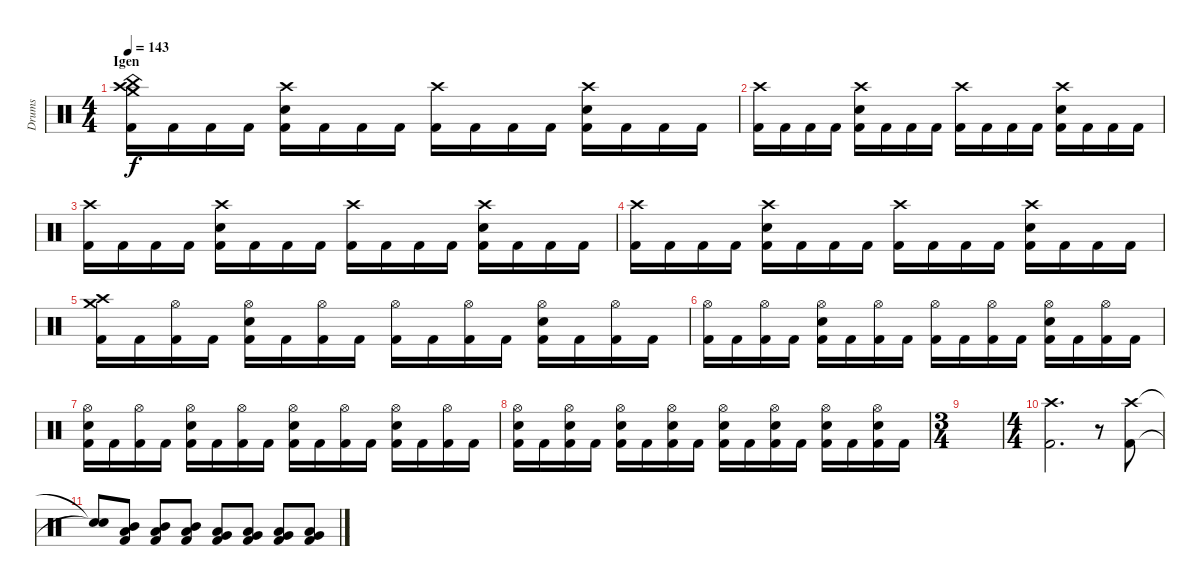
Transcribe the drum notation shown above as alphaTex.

\track ("Drums" "Drums") {instrument percussion}
\staff {score}
\articulation defaults
\ts (4 4)
\section ("" "Igen")
\tempo 143
\clef neutral
\ks c
("Crash medium (hit)" "Crash high (hit)" "China (hit)" "Kick (hit) 2").16{dy f} "Kick (hit) 2".16 "Kick (hit) 2".16 "Kick (hit) 2".16 ("Crash high (hit)" "Snare (hit) 2" "Kick (hit) 2").16 "Kick (hit) 2".16 "Kick (hit) 2".16 "Kick (hit) 2".16 ("Crash high (hit)" "Kick (hit) 2").16 "Kick (hit) 2".16 "Kick (hit) 2".16 "Kick (hit) 2".16 ("Crash high (hit)" "Snare (hit) 2" "Kick (hit) 2").16 "Kick (hit) 2".16 "Kick (hit) 2".16 "Kick (hit) 2".16 |
("Crash high (hit)" "Kick (hit) 2").16 "Kick (hit) 2".16 "Kick (hit) 2".16 "Kick (hit) 2".16 ("Crash high (hit)" "Snare (hit) 2" "Kick (hit) 2").16 "Kick (hit) 2".16 "Kick (hit) 2".16 "Kick (hit) 2".16 ("Crash high (hit)" "Kick (hit) 2").16 "Kick (hit) 2".16 "Kick (hit) 2".16 "Kick (hit) 2".16 ("Crash high (hit)" "Snare (hit) 2" "Kick (hit) 2").16 "Kick (hit) 2".16 "Kick (hit) 2".16 "Kick (hit) 2".16 |
("Crash high (hit)" "Kick (hit) 2").16 "Kick (hit) 2".16 "Kick (hit) 2".16 "Kick (hit) 2".16 ("Crash high (hit)" "Snare (hit) 2" "Kick (hit) 2").16 "Kick (hit) 2".16 "Kick (hit) 2".16 "Kick (hit) 2".16 ("Crash high (hit)" "Kick (hit) 2").16 "Kick (hit) 2".16 "Kick (hit) 2".16 "Kick (hit) 2".16 ("Crash high (hit)" "Snare (hit) 2" "Kick (hit) 2").16 "Kick (hit) 2".16 "Kick (hit) 2".16 "Kick (hit) 2".16 |
("Crash high (hit)" "Kick (hit) 2").16 "Kick (hit) 2".16 "Kick (hit) 2".16 "Kick (hit) 2".16 ("Crash high (hit)" "Snare (hit) 2" "Kick (hit) 2").16 "Kick (hit) 2".16 "Kick (hit) 2".16 "Kick (hit) 2".16 ("Crash high (hit)" "Kick (hit) 2").16 "Kick (hit) 2".16 "Kick (hit) 2".16 "Kick (hit) 2".16 ("Crash high (hit)" "Snare (hit) 2" "Kick (hit) 2").16 "Kick (hit) 2".16 "Kick (hit) 2".16 "Kick (hit) 2".16 |
("Crash medium (hit)" "Crash high (hit)" "Kick (hit) 2").16 "Kick (hit) 2".16 ("Hi-Hat (open)" "Kick (hit) 2").16 "Kick (hit) 2".16 ("Hi-Hat (open)" "Snare (hit) 2" "Kick (hit) 2").16 "Kick (hit) 2".16 ("Hi-Hat (open)" "Kick (hit) 2").16 "Kick (hit) 2".16 ("Hi-Hat (open)" "Kick (hit) 2").16 "Kick (hit) 2".16 ("Hi-Hat (open)" "Kick (hit) 2").16 "Kick (hit) 2".16 ("Hi-Hat (open)" "Snare (hit) 2" "Kick (hit) 2").16 "Kick (hit) 2".16 ("Hi-Hat (open)" "Kick (hit) 2").16 "Kick (hit) 2".16 |
("Hi-Hat (open)" "Kick (hit) 2").16 "Kick (hit) 2".16 ("Hi-Hat (open)" "Kick (hit) 2").16 "Kick (hit) 2".16 ("Hi-Hat (open)" "Snare (hit) 2" "Kick (hit) 2").16 "Kick (hit) 2".16 ("Hi-Hat (open)" "Kick (hit) 2").16 "Kick (hit) 2".16 ("Hi-Hat (open)" "Kick (hit) 2").16 "Kick (hit) 2".16 ("Hi-Hat (open)" "Kick (hit) 2").16 "Kick (hit) 2".16 ("Hi-Hat (open)" "Snare (hit) 2" "Kick (hit) 2").16 "Kick (hit) 2".16 ("Hi-Hat (open)" "Kick (hit) 2").16 "Kick (hit) 2".16 |
("Hi-Hat (open)" "Snare (hit) 2" "Kick (hit) 2").16 "Kick (hit) 2".16 ("Hi-Hat (open)" "Kick (hit) 2").16 "Kick (hit) 2".16 ("Hi-Hat (open)" "Snare (hit) 2" "Kick (hit) 2").16 "Kick (hit) 2".16 ("Hi-Hat (open)" "Kick (hit) 2").16 "Kick (hit) 2".16 ("Hi-Hat (open)" "Snare (hit) 2" "Kick (hit) 2").16 "Kick (hit) 2".16 ("Hi-Hat (open)" "Kick (hit) 2").16 "Kick (hit) 2".16 ("Hi-Hat (open)" "Snare (hit) 2" "Kick (hit) 2").16 "Kick (hit) 2".16 ("Hi-Hat (open)" "Kick (hit) 2").16 "Kick (hit) 2".16 |
("Hi-Hat (open)" "Snare (hit) 2" "Kick (hit) 2").16 "Kick (hit) 2".16 ("Hi-Hat (open)" "Snare (hit) 2" "Kick (hit) 2").16 "Kick (hit) 2".16 ("Hi-Hat (open)" "Snare (hit) 2" "Kick (hit) 2").16 "Kick (hit) 2".16 ("Hi-Hat (open)" "Snare (hit) 2" "Kick (hit) 2").16 "Kick (hit) 2".16 ("Hi-Hat (open)" "Snare (hit) 2" "Kick (hit) 2").16 "Kick (hit) 2".16 ("Hi-Hat (open)" "Snare (hit) 2" "Kick (hit) 2").16 "Kick (hit) 2".16 ("Hi-Hat (open)" "Snare (hit) 2" "Kick (hit) 2").16 "Kick (hit) 2".16 ("Hi-Hat (open)" "Snare (hit) 2" "Kick (hit) 2").16 "Kick (hit) 2".16 |
\ts (3 4)
|
\ts (4 4)
("Crash high (hit)" "Kick (hit) 2").2{d} r.8 ("Crash high (hit)" "Kick (hit) 2").8 |
("Snare (hit)"{t} "Snare (hit)"{t}).8 ("Mid Tom (hit)" "Low Tom (hit)" "Kick (hit) 2").8 ("Mid Tom (hit)" "Low Tom (hit)" "Kick (hit) 2").8 ("Mid Tom (hit)" "Low Tom (hit)" "Kick (hit) 2").8 ("Low Tom (hit)" "Very Low Tom (hit)" "Kick (hit) 2").8 ("Low Tom (hit)" "Very Low Tom (hit)" "Kick (hit) 2").8 ("Very Low Tom (hit)" "Low Floor Tom (hit)" "Kick (hit) 2").8 ("Very Low Tom (hit)" "Low Floor Tom (hit)" "Kick (hit) 2").8
